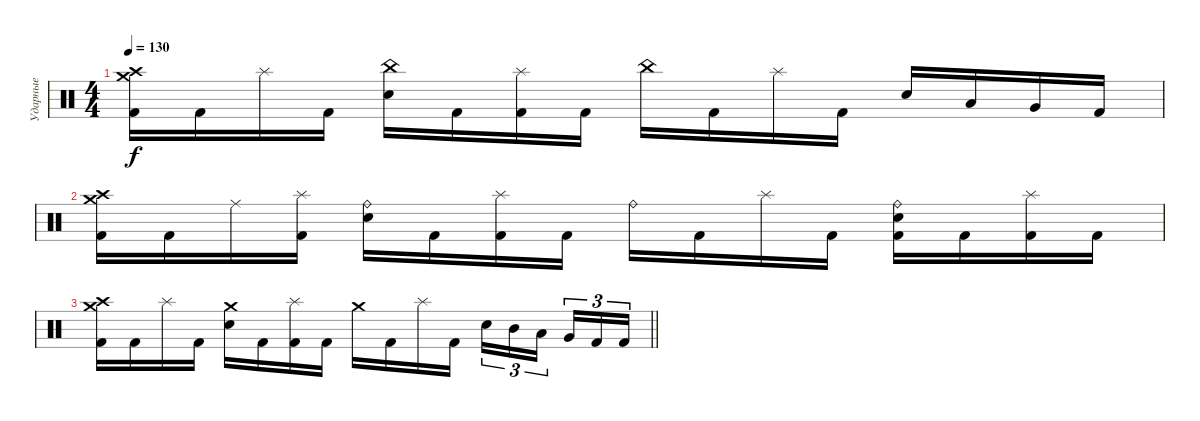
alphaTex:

\track ("Ударные" "Ударные") {instrument percussion}
\staff {score}
\articulation defaults
\ts (4 4)
\tempo 130
\clef neutral
\ks c
("Crash medium (hit)" "Crash high (hit)" "Kick (hit) 2").16{dy f} "Kick (hit) 2".16 "Splash (hit)".16 "Kick (hit) 2".16 ("China (hit)" "Electric Snare (hit)").16 "Kick (hit) 2".16 ("Splash (hit)" "Kick (hit) 2").16 "Kick (hit) 2".16 "China (hit)".16 "Kick (hit) 2".16 "Splash (hit)".16 "Kick (hit) 2".16 "Electric Snare (hit)".16 "Low Tom (hit)".16 "Very Low Tom (hit)".16 "Kick (hit) 2".16 |
("Crash high (hit)" "Crash medium (hit)" "Kick (hit) 2").16 "Kick (hit) 2".16 "Ride (middle)".16 ("Splash (hit)" "Kick (hit) 2").16 ("Ride (bell)" "Electric Snare (hit)").16 "Kick (hit) 2".16 ("Splash (hit)" "Kick (hit) 2").16 "Kick (hit) 2".16 "Ride (bell)".16 "Kick (hit) 2".16 "Splash (hit)".16 "Kick (hit) 2".16 ("Ride (bell)" "Electric Snare (hit)" "Kick (hit) 2").16 "Kick (hit) 2".16 ("Splash (hit)" "Kick (hit) 2").16 "Kick (hit) 2".16 |
\barLineRight lightlight
("Crash medium (hit)" "Crash high (hit)" "Kick (hit) 2").16 "Kick (hit) 2".16 "Splash (hit)".16 "Kick (hit) 2".16 ("Crash medium (hit)" "Electric Snare (hit)").16 "Kick (hit) 2".16 ("Splash (hit)" "Kick (hit) 2").16 "Kick (hit) 2".16 "Crash medium (hit)".16 "Kick (hit) 2".16 "Splash (hit)".16 "Kick (hit) 2".16 "Electric Snare (hit)".16{tu (3 2)} "Mid Tom (hit)".16{tu (3 2)} "Low Tom (hit)".16{tu (3 2) beam splitsecondary} "Very Low Tom (hit)".16{tu (3 2)} "Kick (hit) 2".16{tu (3 2)} "Kick (hit) 2".16{tu (3 2)}
